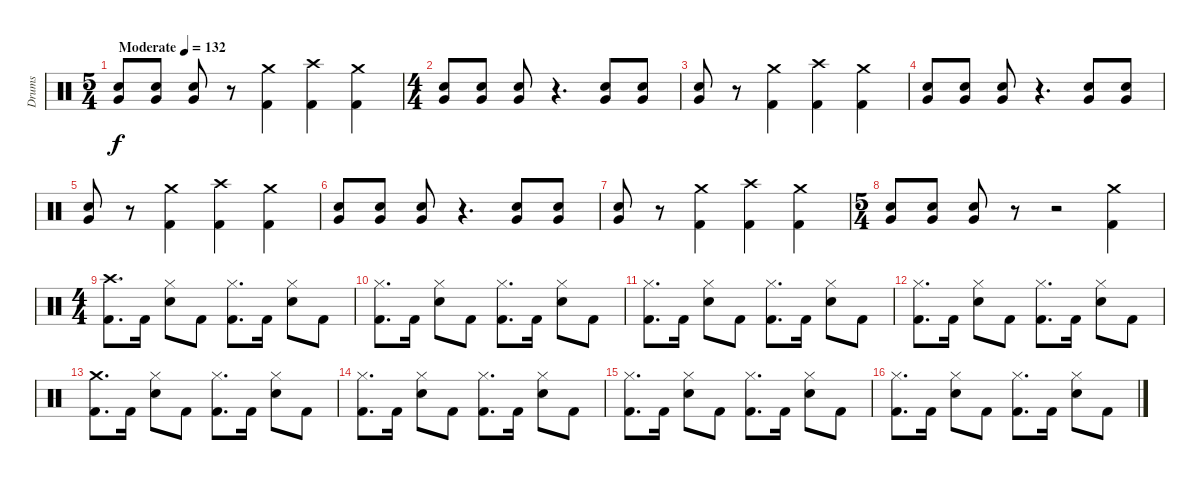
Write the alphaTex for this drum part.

\track ("Drums" "Drums") {instrument percussion}
\staff {score}
\articulation defaults
\ts (5 4)
\tempo (132 "Moderate")
\clef neutral
\ks c
("Snare (hit) 2" "Very Low Tom (hit)").8{dy f} ("Snare (hit) 2" "Very Low Tom (hit)").8 ("Snare (hit) 2" "Very Low Tom (hit)").8 r.8 ("Crash medium (hit)" "Kick (hit) 2").4 ("Crash high (hit)" "Kick (hit) 2").4 ("Crash medium (hit)" "Kick (hit) 2").4 |
\ts (4 4)
("Snare (hit) 2" "Very Low Tom (hit)").8 ("Snare (hit) 2" "Very Low Tom (hit)").8 ("Snare (hit) 2" "Very Low Tom (hit)").8 r.4{d} ("Snare (hit) 2" "Very Low Tom (hit)").8 ("Snare (hit) 2" "Very Low Tom (hit)").8 |
("Snare (hit) 2" "Very Low Tom (hit)").8 r.8 ("Crash medium (hit)" "Kick (hit) 2").4 ("Crash high (hit)" "Kick (hit) 2").4 ("Crash medium (hit)" "Kick (hit) 2").4 |
("Snare (hit) 2" "Very Low Tom (hit)").8 ("Snare (hit) 2" "Very Low Tom (hit)").8 ("Snare (hit) 2" "Very Low Tom (hit)").8 r.4{d} ("Snare (hit) 2" "Very Low Tom (hit)").8 ("Snare (hit) 2" "Very Low Tom (hit)").8 |
("Snare (hit) 2" "Very Low Tom (hit)").8 r.8 ("Crash medium (hit)" "Kick (hit) 2").4 ("Crash high (hit)" "Kick (hit) 2").4 ("Crash medium (hit)" "Kick (hit) 2").4 |
("Snare (hit) 2" "Very Low Tom (hit)").8 ("Snare (hit) 2" "Very Low Tom (hit)").8 ("Snare (hit) 2" "Very Low Tom (hit)").8 r.4{d} ("Snare (hit) 2" "Very Low Tom (hit)").8 ("Snare (hit) 2" "Very Low Tom (hit)").8 |
("Snare (hit) 2" "Very Low Tom (hit)").8 r.8 ("Crash medium (hit)" "Kick (hit) 2").4 ("Crash high (hit)" "Kick (hit) 2").4 ("Crash medium (hit)" "Kick (hit) 2").4 |
\ts (5 4)
("Snare (hit) 2" "Very Low Tom (hit)").8 ("Snare (hit) 2" "Very Low Tom (hit)").8 ("Snare (hit) 2" "Very Low Tom (hit)").8 r.8 r.2 ("Crash medium (hit)" "Kick (hit) 2").4 |
\ts (4 4)
("Crash high (hit)" "Kick (hit) 2").8{d} "Kick (hit) 2".16 ("Hi-Hat (closed)" "Snare (hit) 2").8 "Kick (hit) 2".8 ("Hi-Hat (closed)" "Kick (hit) 2").8{d} "Kick (hit) 2".16 ("Hi-Hat (closed)" "Snare (hit) 2").8 "Kick (hit) 2".8 |
("Hi-Hat (closed)" "Kick (hit) 2").8{d} "Kick (hit) 2".16 ("Hi-Hat (closed)" "Snare (hit) 2").8 "Kick (hit) 2".8 ("Hi-Hat (closed)" "Kick (hit) 2").8{d} "Kick (hit) 2".16 ("Hi-Hat (closed)" "Snare (hit) 2").8 "Kick (hit) 2".8 |
("Hi-Hat (closed)" "Kick (hit) 2").8{d} "Kick (hit) 2".16 ("Hi-Hat (closed)" "Snare (hit) 2").8 "Kick (hit) 2".8 ("Hi-Hat (closed)" "Kick (hit) 2").8{d} "Kick (hit) 2".16 ("Hi-Hat (closed)" "Snare (hit) 2").8 "Kick (hit) 2".8 |
("Hi-Hat (closed)" "Kick (hit) 2").8{d} "Kick (hit) 2".16 ("Hi-Hat (closed)" "Snare (hit) 2").8 "Kick (hit) 2".8 ("Hi-Hat (closed)" "Kick (hit) 2").8{d} "Kick (hit) 2".16 ("Hi-Hat (closed)" "Snare (hit) 2").8 "Kick (hit) 2".8 |
("Crash medium (hit)" "Kick (hit) 2").8{d} "Kick (hit) 2".16 ("Hi-Hat (closed)" "Snare (hit) 2").8 "Kick (hit) 2".8 ("Hi-Hat (closed)" "Kick (hit) 2").8{d} "Kick (hit) 2".16 ("Hi-Hat (closed)" "Snare (hit) 2").8 "Kick (hit) 2".8 |
("Hi-Hat (closed)" "Kick (hit) 2").8{d} "Kick (hit) 2".16 ("Hi-Hat (closed)" "Snare (hit) 2").8 "Kick (hit) 2".8 ("Hi-Hat (closed)" "Kick (hit) 2").8{d} "Kick (hit) 2".16 ("Hi-Hat (closed)" "Snare (hit) 2").8 "Kick (hit) 2".8 |
("Hi-Hat (closed)" "Kick (hit) 2").8{d} "Kick (hit) 2".16 ("Hi-Hat (closed)" "Snare (hit) 2").8 "Kick (hit) 2".8 ("Hi-Hat (closed)" "Kick (hit) 2").8{d} "Kick (hit) 2".16 ("Hi-Hat (closed)" "Snare (hit) 2").8 "Kick (hit) 2".8 |
("Hi-Hat (closed)" "Kick (hit) 2").8{d} "Kick (hit) 2".16 ("Hi-Hat (closed)" "Snare (hit) 2").8 "Kick (hit) 2".8 ("Hi-Hat (closed)" "Kick (hit) 2").8{d} "Kick (hit) 2".16 ("Hi-Hat (closed)" "Snare (hit) 2").8 "Kick (hit) 2".8
